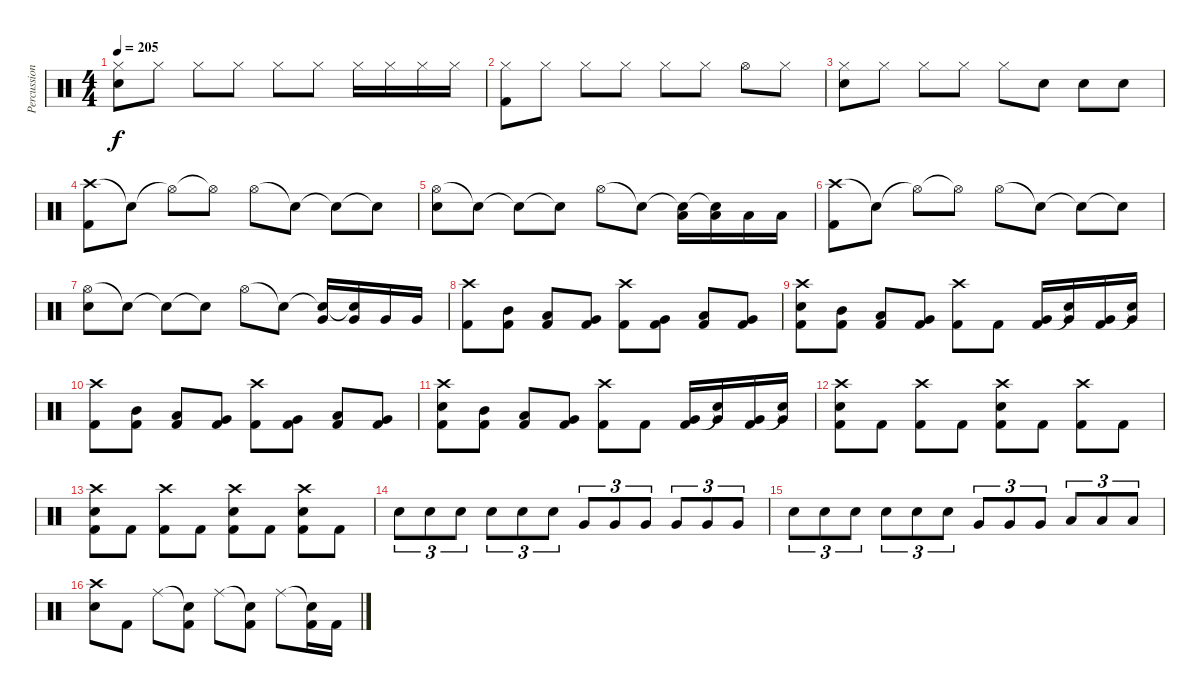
\track ("Percussions" "Percussion") {instrument percussion}
\staff {score}
\articulation defaults
\ts (4 4)
\tempo 205
\clef neutral
\ks c
("Hi-Hat (closed)" "Snare (hit) 2").8{dy f} "Hi-Hat (closed)".8 "Hi-Hat (closed)".8 "Hi-Hat (closed)".8 "Hi-Hat (closed)".8 "Hi-Hat (closed)".8 "Hi-Hat (closed)".16 "Hi-Hat (closed)".16 "Hi-Hat (closed)".16 "Hi-Hat (closed)".16 |
("Hi-Hat (closed)" "Kick (hit) 2").8 "Hi-Hat (closed)".8 "Hi-Hat (closed)".8 "Hi-Hat (closed)".8 "Hi-Hat (closed)".8 "Hi-Hat (closed)".8 "Hi-Hat (open)".8 "Hi-Hat (closed)".8 |
("Hi-Hat (closed)" "Snare (hit) 2").8 "Hi-Hat (closed)".8 "Hi-Hat (closed)".8 "Hi-Hat (closed)".8 "Hi-Hat (closed)".8 "Snare (hit) 2".8 "Snare (hit) 2".8 "Snare (hit) 2".8 |
("Crash high (hit)" "Kick (hit) 2").8 "Snare (hit)"{t}.8 "Hi-Hat (open)"{t}.8 "Hi-Hat (open)"{t}.8 "Hi-Hat (open)".8 "Snare (hit)"{t}.8 "Snare (hit)"{t}.8 "Snare (hit)"{t}.8 |
("Hi-Hat (open)" "Snare (hit) 2").8 "Snare (hit)"{t}.8 "Snare (hit)"{t}.8 "Snare (hit)"{t}.8 "Hi-Hat (open)".8 "Snare (hit)"{t}.8 ("Snare (hit)"{t} "Low Tom (hit)").16 ("Snare (hit)"{t} "Low Tom (hit)").16 "Low Tom (hit)".16 "Low Tom (hit)".16 |
("Crash high (hit)" "Kick (hit) 2").8 "Snare (hit)"{t}.8 "Hi-Hat (open)"{t}.8 "Hi-Hat (open)"{t}.8 "Hi-Hat (open)".8 "Snare (hit)"{t}.8 "Snare (hit)"{t}.8 "Snare (hit)"{t}.8 |
("Hi-Hat (open)" "Snare (hit) 2").8 "Snare (hit)"{t}.8 "Snare (hit)"{t}.8 "Snare (hit)"{t}.8 "Hi-Hat (open)".8 "Snare (hit)"{t}.8 ("Snare (hit)"{t} "Very Low Tom (hit)").16 ("Snare (hit)"{t} "Very Low Tom (hit)").16 "Very Low Tom (hit)".16 "Very Low Tom (hit)".16 |
("Crash high (hit)" "Kick (hit) 2").8 ("Mid Tom (hit)" "Kick (hit) 2").8 ("Low Tom (hit)" "Kick (hit) 2").8 ("Very Low Tom (hit)" "Kick (hit) 2").8 ("Crash high (hit)" "Kick (hit) 2").8 ("Very Low Tom (hit)" "Kick (hit) 2").8 ("Low Floor Tom (hit)" "Kick (hit) 2").8 ("Very Low Tom (hit)" "Kick (hit) 2").8 |
("Crash high (hit)" "Snare (hit) 2" "Kick (hit) 2").8 ("Mid Tom (hit)" "Kick (hit) 2").8 ("Low Tom (hit)" "Kick (hit) 2").8 ("Very Low Tom (hit)" "Kick (hit) 2").8 ("Crash high (hit)" "Kick (hit) 2").8 "Kick (hit) 2".8 ("Very Low Tom (hit)" "Kick (hit) 2").16 ("Very Low Tom (hit)" "Snare (hit)"{t}).16 ("Very Low Tom (hit)" "Kick (hit) 2").16 ("Very Low Tom (hit)" "Snare (hit)"{t}).16 |
("Crash high (hit)" "Kick (hit) 2").8 ("Mid Tom (hit)" "Kick (hit) 2").8 ("Low Tom (hit)" "Kick (hit) 2").8 ("Very Low Tom (hit)" "Kick (hit) 2").8 ("Crash high (hit)" "Kick (hit) 2").8 ("Very Low Tom (hit)" "Kick (hit) 2").8 ("Low Floor Tom (hit)" "Kick (hit) 2").8 ("Very Low Tom (hit)" "Kick (hit) 2").8 |
("Crash high (hit)" "Snare (hit) 2" "Kick (hit) 2").8 ("Mid Tom (hit)" "Kick (hit) 2").8 ("Low Tom (hit)" "Kick (hit) 2").8 ("Very Low Tom (hit)" "Kick (hit) 2").8 ("Crash high (hit)" "Kick (hit) 2").8 "Kick (hit) 2".8 ("Very Low Tom (hit)" "Kick (hit) 2").16 ("Very Low Tom (hit)" "Snare (hit)"{t}).16 ("Very Low Tom (hit)" "Kick (hit) 2").16 ("Very Low Tom (hit)" "Snare (hit)"{t}).16 |
("Crash high (hit)" "Snare (hit) 2" "Kick (hit) 2").8 "Kick (hit) 2".8 ("Crash high (hit)" "Kick (hit) 2").8 "Kick (hit) 2".8 ("Crash high (hit)" "Snare (hit) 2" "Kick (hit) 2").8 "Kick (hit) 2".8 ("Crash high (hit)" "Kick (hit) 2").8 "Kick (hit) 2".8 |
("Crash high (hit)" "Snare (hit) 2" "Kick (hit) 2").8 "Kick (hit) 2".8 ("Crash high (hit)" "Kick (hit) 2").8 "Kick (hit) 2".8 ("Crash high (hit)" "Snare (hit) 2" "Kick (hit) 2").8 "Kick (hit) 2".8 ("Crash high (hit)" "Snare (hit) 2" "Kick (hit) 2").8 "Kick (hit) 2".8 |
"Snare (hit) 2".8{tu (3 2)} "Snare (hit) 2".8{tu (3 2)} "Snare (hit) 2".8{tu (3 2)} "Snare (hit) 2".8{tu (3 2)} "Snare (hit) 2".8{tu (3 2)} "Snare (hit) 2".8{tu (3 2)} "Very Low Tom (hit)".8{tu (3 2)} "Very Low Tom (hit)".8{tu (3 2)} "Very Low Tom (hit)".8{tu (3 2)} "Very Low Tom (hit)".8{tu (3 2)} "Very Low Tom (hit)".8{tu (3 2)} "Very Low Tom (hit)".8{tu (3 2)} |
"Snare (hit) 2".8{tu (3 2)} "Snare (hit) 2".8{tu (3 2)} "Snare (hit) 2".8{tu (3 2)} "Snare (hit) 2".8{tu (3 2)} "Snare (hit) 2".8{tu (3 2)} "Snare (hit) 2".8{tu (3 2)} "Very Low Tom (hit)".8{tu (3 2)} "Very Low Tom (hit)".8{tu (3 2)} "Very Low Tom (hit)".8{tu (3 2)} "Low Floor Tom (hit)".8{tu (3 2)} "Low Floor Tom (hit)".8{tu (3 2)} "Low Floor Tom (hit)".8{tu (3 2)} |
("Crash high (hit)" "Snare (hit) 2").8 "Kick (hit) 2".8 "Ride (middle)".8 ("Snare (hit)"{t} "Kick (hit) 2").8 "Ride (middle)".8 ("Snare (hit)"{t} "Kick (hit) 2").8 "Ride (middle)".8 ("Snare (hit)"{t} "Kick (hit) 2").16 "Kick (hit) 2".16
